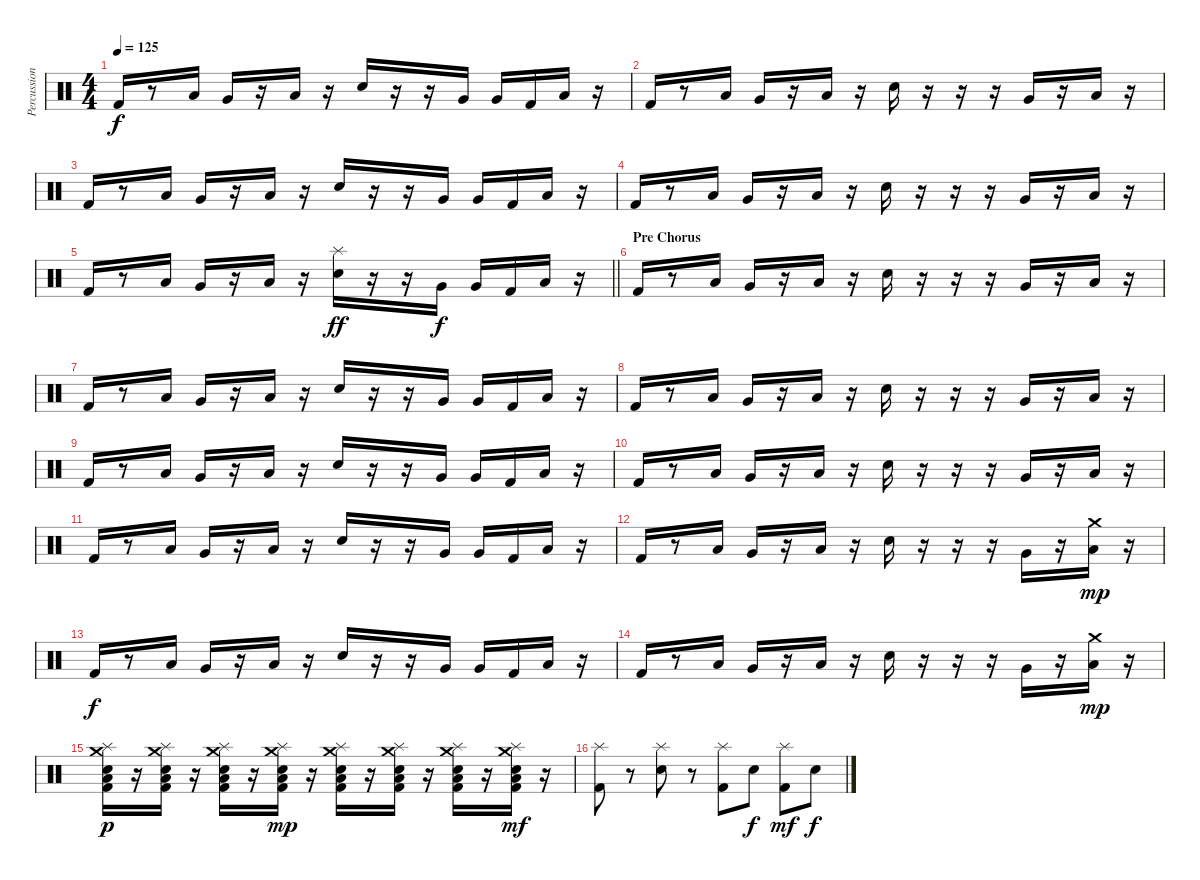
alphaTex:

\track ("Percussion" "Percussion") {instrument percussion}
\staff {score}
\articulation defaults
\ts (4 4)
\tempo 125
\clef neutral
\ks c "Kick (hit) 2".16{dy f}
r.8 "Low Tom (hit)".16 "Very Low Tom (hit)".16 r.16 "Low Floor Tom (hit)".16 r.16 "Snare (hit) 2".16 r.16 r.16 "Very Low Tom (hit)".16 "Very Low Tom (hit)".16 "Kick (hit) 2".16 "Low Tom (hit)".16 r.16 |
"Kick (hit) 2".16 r.8 "Low Tom (hit)".16 "Very Low Tom (hit)".16 r.16 "Low Floor Tom (hit)".16 r.16 "Snare (hit) 2".16 r.16 r.16 r.16 "Very Low Tom (hit)".16 r.16 "Low Tom (hit)".16 r.16 |
"Kick (hit) 2".16 r.8 "Low Tom (hit)".16 "Very Low Tom (hit)".16 r.16 "Low Floor Tom (hit)".16 r.16 "Snare (hit) 2".16 r.16 r.16 "Very Low Tom (hit)".16 "Very Low Tom (hit)".16 "Kick (hit) 2".16 "Low Tom (hit)".16 r.16 |
"Kick (hit) 2".16 r.8 "Low Tom (hit)".16 "Very Low Tom (hit)".16 r.16 "Low Floor Tom (hit)".16 r.16 "Snare (hit) 2".16 r.16 r.16 r.16 "Very Low Tom (hit)".16 r.16 "Low Tom (hit)".16 r.16 |
\barLineRight lightlight "Kick (hit) 2".16
r.8 "Low Tom (hit)".16 "Very Low Tom (hit)".16 r.16 "Low Floor Tom (hit)".16 r.16 ("Snare (hit) 2" "Splash (hit)").16{dy ff} r.16 r.16 "Very Low Tom (hit)".16{dy f} "Very Low Tom (hit)".16 "Kick (hit) 2".16 "Low Tom (hit)".16 r.16 |
\section ("" "Pre Chorus")
"Kick (hit) 2".16 r.8 "Low Tom (hit)".16 "Very Low Tom (hit)".16 r.16 "Low Floor Tom (hit)".16 r.16 "Snare (hit) 2".16 r.16 r.16 r.16 "Very Low Tom (hit)".16 r.16 "Low Tom (hit)".16 r.16 |
"Kick (hit) 2".16 r.8 "Low Tom (hit)".16 "Very Low Tom (hit)".16 r.16 "Low Floor Tom (hit)".16 r.16 "Snare (hit) 2".16 r.16 r.16 "Very Low Tom (hit)".16 "Very Low Tom (hit)".16 "Kick (hit) 2".16 "Low Tom (hit)".16 r.16 |
"Kick (hit) 2".16 r.8 "Low Tom (hit)".16 "Very Low Tom (hit)".16 r.16 "Low Floor Tom (hit)".16 r.16 "Snare (hit) 2".16 r.16 r.16 r.16 "Very Low Tom (hit)".16 r.16 "Low Tom (hit)".16 r.16 |
"Kick (hit) 2".16 r.8 "Low Tom (hit)".16 "Very Low Tom (hit)".16 r.16 "Low Floor Tom (hit)".16 r.16 "Snare (hit) 2".16 r.16 r.16 "Very Low Tom (hit)".16 "Very Low Tom (hit)".16 "Kick (hit) 2".16 "Low Tom (hit)".16 r.16 |
"Kick (hit) 2".16 r.8 "Low Tom (hit)".16 "Very Low Tom (hit)".16 r.16 "Low Floor Tom (hit)".16 r.16 "Snare (hit) 2".16 r.16 r.16 r.16 "Very Low Tom (hit)".16 r.16 "Low Tom (hit)".16 r.16 |
"Kick (hit) 2".16 r.8 "Low Tom (hit)".16 "Very Low Tom (hit)".16 r.16 "Low Floor Tom (hit)".16 r.16 "Snare (hit) 2".16 r.16 r.16 "Very Low Tom (hit)".16 "Very Low Tom (hit)".16 "Kick (hit) 2".16 "Low Tom (hit)".16 r.16 |
"Kick (hit) 2".16 r.8 "Low Tom (hit)".16 "Very Low Tom (hit)".16 r.16 "Low Floor Tom (hit)".16 r.16 "Snare (hit) 2".16 r.16 r.16 r.16 "Very Low Tom (hit)".16 r.16 ("Low Tom (hit)" "Crash medium (hit)").16{dy mp} r.16 |
"Kick (hit) 2".16{dy f} r.8 "Low Tom (hit)".16 "Very Low Tom (hit)".16 r.16 "Low Floor Tom (hit)".16 r.16 "Snare (hit) 2".16 r.16 r.16 "Very Low Tom (hit)".16 "Very Low Tom (hit)".16 "Kick (hit) 2".16 "Low Tom (hit)".16 r.16 |
"Kick (hit) 2".16 r.8 "Low Tom (hit)".16 "Very Low Tom (hit)".16 r.16 "Low Floor Tom (hit)".16 r.16 "Snare (hit) 2".16 r.16 r.16 r.16 "Very Low Tom (hit)".16 r.16 ("Low Tom (hit)" "Crash medium (hit)").16{dy mp} r.16 |
("Kick (hit) 2" "Splash (hit)" "Snare (hit) 2" "Crash medium (hit)" "Low Tom (hit)").16{dy p} r.16 ("Kick (hit) 2" "Splash (hit)" "Snare (hit) 2" "Crash medium (hit)" "Low Tom (hit)").16 r.16 ("Kick (hit) 2" "Splash (hit)" "Snare (hit) 2" "Crash medium (hit)" "Low Tom (hit)").16 r.16 ("Kick (hit) 2" "Splash (hit)" "Snare (hit) 2" "Crash medium (hit)" "Low Tom (hit)").16{dy mp} r.16 ("Snare (hit) 2" "Splash (hit)" "Kick (hit) 2" "Crash medium (hit)" "Low Tom (hit)").16 r.16 ("Snare (hit) 2" "Splash (hit)" "Kick (hit) 2" "Crash medium (hit)" "Low Tom (hit)").16 r.16 ("Snare (hit) 2" "Splash (hit)" "Kick (hit) 2" "Crash medium (hit)" "Low Tom (hit)").16 r.16 ("Snare (hit) 2" "Splash (hit)" "Kick (hit) 2" "Crash medium (hit)" "Low Tom (hit)").16{dy mf} r.16 |
("Kick (hit) 2" "Splash (hit)").8 r.8 ("Snare (hit) 2" "Splash (hit)").8 r.8 ("Kick (hit) 2" "Splash (hit)").8 "Snare (hit) 2".8{dy f} ("Kick (hit) 2" "Splash (hit)").8{dy mf} "Snare (hit) 2".8{dy f}
